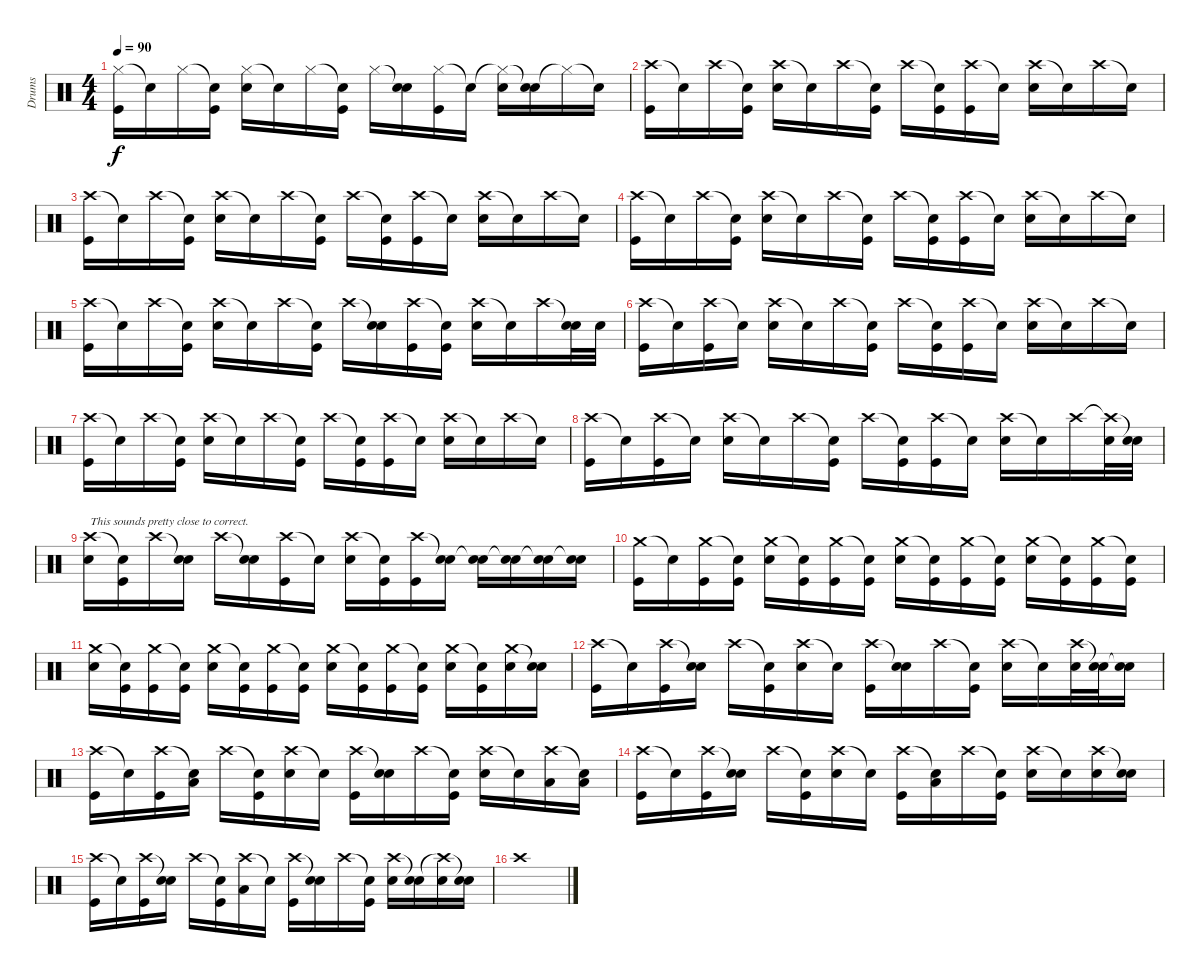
\track ("Drums" "Drums") {instrument percussion}
\staff {score}
\articulation defaults
\ts (4 4)
\tempo 90
\clef neutral
\ks c
("Hi-Hat (closed)" "Kick (hit)").16{dy f} "Snare (hit)"{t}.16 "Hi-Hat (closed)".16 ("Snare (hit)"{t} "Kick (hit)").16 ("Hi-Hat (closed)" "Electric Snare (hit)").16 "Snare (hit)"{t}.16 "Hi-Hat (closed)".16 ("Snare (hit)"{t} "Kick (hit)").16 "Hi-Hat (closed)".16 ("Snare (hit)"{t} "Electric Snare (hit)").16 ("Hi-Hat (closed)" "Kick (hit)").16 "Snare (hit)"{t}.16 ("Hi-Hat (closed)"{t} "Electric Snare (hit)").16 ("Snare (hit)"{t} "Electric Snare (hit)").16 "Hi-Hat (closed)"{t}.16 "Snare (hit)"{t}.16 |
("Crash high (hit)" "Kick (hit)").16 "Snare (hit)"{t}.16 "Crash high (hit)".16 ("Snare (hit)"{t} "Kick (hit)").16 ("Crash high (hit)" "Electric Snare (hit)").16 "Snare (hit)"{t}.16 "Crash high (hit)".16 ("Snare (hit)"{t} "Kick (hit)").16 "Crash high (hit)".16 ("Snare (hit)"{t} "Kick (hit)").16 ("Crash high (hit)" "Kick (hit)").16 "Snare (hit)"{t}.16 ("Crash high (hit)" "Electric Snare (hit)").16 "Snare (hit)"{t}.16 "Crash high (hit)".16 "Snare (hit)"{t}.16 |
("Crash high (hit)" "Kick (hit)").16 "Snare (hit)"{t}.16 "Crash high (hit)".16 ("Snare (hit)"{t} "Kick (hit)").16 ("Crash high (hit)" "Electric Snare (hit)").16 "Snare (hit)"{t}.16 "Crash high (hit)".16 ("Snare (hit)"{t} "Kick (hit)").16 "Crash high (hit)".16 ("Snare (hit)"{t} "Kick (hit)").16 ("Crash high (hit)" "Kick (hit)").16 "Snare (hit)"{t}.16 ("Crash high (hit)" "Electric Snare (hit)").16 "Snare (hit)"{t}.16 "Crash high (hit)".16 "Snare (hit)"{t}.16 |
("Crash high (hit)" "Kick (hit)").16 "Snare (hit)"{t}.16 "Crash high (hit)".16 ("Snare (hit)"{t} "Kick (hit)").16 ("Crash high (hit)" "Electric Snare (hit)").16 "Snare (hit)"{t}.16 "Crash high (hit)".16 ("Snare (hit)"{t} "Kick (hit)").16 "Crash high (hit)".16 ("Snare (hit)"{t} "Kick (hit)").16 ("Crash high (hit)" "Kick (hit)").16 "Snare (hit)"{t}.16 ("Crash high (hit)" "Electric Snare (hit)").16 "Snare (hit)"{t}.16 "Crash high (hit)".16 "Snare (hit)"{t}.16 |
("Crash high (hit)" "Kick (hit)").16 "Snare (hit)"{t}.16 "Crash high (hit)".16 ("Snare (hit)"{t} "Kick (hit)").16 ("Crash high (hit)" "Electric Snare (hit)").16 "Snare (hit)"{t}.16 "Crash high (hit)".16 ("Snare (hit)"{t} "Kick (hit)").16 "Crash high (hit)".16 ("Snare (hit)"{t} "Electric Snare (hit)").16 ("Crash high (hit)" "Kick (hit)").16 ("Snare (hit)"{t} "Kick (hit)").16 ("Crash high (hit)" "Electric Snare (hit)").16 "Snare (hit)"{t}.16 "Crash high (hit)".16 ("Snare (hit)"{t} "Electric Snare (hit)").32 "Electric Snare (hit)".32 |
("Crash high (hit)" "Kick (hit)").16 "Snare (hit)"{t}.16 ("Crash high (hit)" "Kick (hit)").16 "Snare (hit)"{t}.16 ("Crash high (hit)" "Electric Snare (hit)").16 "Snare (hit)"{t}.16 "Crash high (hit)".16 ("Snare (hit)"{t} "Kick (hit)").16 "Crash high (hit)".16 ("Snare (hit)"{t} "Kick (hit)").16 ("Crash high (hit)" "Kick (hit)").16 "Snare (hit)"{t}.16 ("Crash high (hit)" "Electric Snare (hit)").16 "Snare (hit)"{t}.16 "Crash high (hit)".16 "Snare (hit)"{t}.16 |
("Crash high (hit)" "Kick (hit)").16 "Snare (hit)"{t}.16 "Crash high (hit)".16 ("Snare (hit)"{t} "Kick (hit)").16 ("Crash high (hit)" "Electric Snare (hit)").16 "Snare (hit)"{t}.16 "Crash high (hit)".16 ("Snare (hit)"{t} "Kick (hit)").16 "Crash high (hit)".16 ("Snare (hit)"{t} "Kick (hit)").16 ("Crash high (hit)" "Kick (hit)").16 "Snare (hit)"{t}.16 ("Crash high (hit)" "Electric Snare (hit)").16 "Snare (hit)"{t}.16 "Crash high (hit)".16 "Snare (hit)"{t}.16 |
("Crash high (hit)" "Kick (hit)").16 "Snare (hit)"{t}.16 ("Crash high (hit)" "Kick (hit)").16 "Snare (hit)"{t}.16 ("Crash high (hit)" "Electric Snare (hit)").16 "Snare (hit)"{t}.16 "Crash high (hit)".16 ("Snare (hit)"{t} "Kick (hit)").16 "Crash high (hit)".16 ("Snare (hit)"{t} "Kick (hit)").16 ("Crash high (hit)" "Kick (hit)").16 "Snare (hit)"{t}.16 ("Crash high (hit)" "Electric Snare (hit)").16 "Snare (hit)"{t}.16 "Crash high (hit)".16 ("Crash high (hit)"{t} "Electric Snare (hit)").32 ("Snare (hit)"{t} "Electric Snare (hit)").32 |
("Crash high (hit)" "Electric Snare (hit)").16{txt "This sounds pretty close to correct."} ("Snare (hit)"{t} "Kick (hit)").16 "Crash high (hit)".16 ("Snare (hit)"{t} "Electric Snare (hit)").16 "Crash high (hit)".16 ("Snare (hit)"{t} "Electric Snare (hit)").16 ("Crash high (hit)" "Kick (hit)").16 "Snare (hit)"{t}.16 ("Crash high (hit)" "Electric Snare (hit)").16 ("Snare (hit)"{t} "Kick (hit)").16 ("Crash high (hit)" "Kick (hit)").16 ("Snare (hit)"{t} "Electric Snare (hit)").16 ("Snare (hit)"{t} "Electric Snare (hit)").16 ("Snare (hit)"{t} "Electric Snare (hit)").16 ("Snare (hit)"{t} "Electric Snare (hit)").16 ("Snare (hit)"{t} "Electric Snare (hit)").16 |
("Crash medium (hit)" "Kick (hit)").16 "Snare (hit)"{t}.16 ("Crash medium (hit)" "Kick (hit)").16 ("Snare (hit)"{t} "Kick (hit)").16 ("Crash medium (hit)" "Electric Snare (hit)").16 ("Snare (hit)"{t} "Kick (hit)").16 ("Crash medium (hit)" "Kick (hit)").16 ("Snare (hit)"{t} "Kick (hit)").16 ("Crash medium (hit)" "Electric Snare (hit)").16 ("Snare (hit)"{t} "Kick (hit)").16 ("Crash medium (hit)" "Kick (hit)").16 ("Snare (hit)"{t} "Kick (hit)").16 ("Crash medium (hit)" "Electric Snare (hit)").16 ("Snare (hit)"{t} "Kick (hit)").16 ("Crash medium (hit)" "Kick (hit)").16 ("Snare (hit)"{t} "Kick (hit)").16 |
("Crash medium (hit)" "Electric Snare (hit)").16 ("Snare (hit)"{t} "Kick (hit)").16 ("Crash medium (hit)" "Kick (hit)").16 ("Snare (hit)"{t} "Kick (hit)").16 ("Crash medium (hit)" "Electric Snare (hit)").16 ("Snare (hit)"{t} "Kick (hit)").16 ("Crash medium (hit)" "Kick (hit)").16 ("Snare (hit)"{t} "Kick (hit)").16 ("Crash medium (hit)" "Electric Snare (hit)").16 ("Snare (hit)"{t} "Kick (hit)").16 ("Crash medium (hit)" "Kick (hit)").16 ("Snare (hit)"{t} "Kick (hit)").16 ("Crash medium (hit)" "Electric Snare (hit)").16 ("Snare (hit)"{t} "Kick (hit)").16 ("Crash medium (hit)" "Electric Snare (hit)").16 ("Snare (hit)"{t} "Electric Snare (hit)").16 |
("Crash high (hit)" "Kick (hit)").16 "Snare (hit)"{t}.16 ("Crash high (hit)" "Kick (hit)").16 ("Snare (hit)"{t} "Electric Snare (hit)").16 "Crash high (hit)".16 ("Snare (hit)"{t} "Kick (hit)").16 ("Crash high (hit)" "Electric Snare (hit)").16 "Snare (hit)"{t}.16 ("Crash high (hit)" "Kick (hit)").16 ("Snare (hit)"{t} "Electric Snare (hit)").16 "Crash high (hit)".16 ("Snare (hit)"{t} "Kick (hit)").16 ("Crash high (hit)" "Electric Snare (hit)").16 "Snare (hit)"{t}.16 ("Crash high (hit)" "Electric Snare (hit)").32 ("Snare (hit)"{t} "Electric Snare (hit)").32 ("Snare (hit)"{t} "Electric Snare (hit)").16 |
("Crash high (hit)" "Kick (hit)").16 "Snare (hit)"{t}.16 ("Crash high (hit)" "Kick (hit)").16 ("Snare (hit)"{t} "Low Tom (hit)").16 "Crash high (hit)".16 ("Snare (hit)"{t} "Kick (hit)").16 ("Crash high (hit)" "Electric Snare (hit)").16 "Snare (hit)"{t}.16 ("Crash high (hit)" "Kick (hit)").16 ("Snare (hit)"{t} "Electric Snare (hit)").16 "Crash high (hit)".16 ("Snare (hit)"{t} "Kick (hit)").16 ("Crash high (hit)" "Electric Snare (hit)").16 "Snare (hit)"{t}.16 ("Crash high (hit)" "Low Tom (hit)").16 ("Snare (hit)"{t} "Low Tom (hit)").16 |
("Crash high (hit)" "Kick (hit)").16 "Snare (hit)"{t}.16 ("Crash high (hit)" "Kick (hit)").16 ("Snare (hit)"{t} "Electric Snare (hit)").16 "Crash high (hit)".16 ("Snare (hit)"{t} "Kick (hit)").16 ("Crash high (hit)" "Electric Snare (hit)").16 "Snare (hit)"{t}.16 ("Crash high (hit)" "Kick (hit)").16 ("Snare (hit)"{t} "Low Tom (hit)").16 "Crash high (hit)".16 ("Snare (hit)"{t} "Kick (hit)").16 ("Crash high (hit)" "Electric Snare (hit)").16 "Snare (hit)"{t}.16 ("Crash high (hit)" "Electric Snare (hit)").16 ("Snare (hit)"{t} "Electric Snare (hit)").16 |
("Crash high (hit)" "Kick (hit)").16 "Snare (hit)"{t}.16 ("Crash high (hit)" "Kick (hit)").16 ("Snare (hit)"{t} "Electric Snare (hit)").16 "Crash high (hit)".16 ("Snare (hit)"{t} "Kick (hit)").16 ("Crash high (hit)" "Low Tom (hit)").16 "Snare (hit)"{t}.16 ("Crash high (hit)" "Kick (hit)").16 ("Snare (hit)"{t} "Electric Snare (hit)").16 "Crash high (hit)".16 ("Snare (hit)"{t} "Kick (hit)").16 ("Crash high (hit)" "Electric Snare (hit)").16 ("Snare (hit)"{t} "Electric Snare (hit)").16 ("Crash high (hit)"{t} "Electric Snare (hit)").16 ("Snare (hit)"{t} "Electric Snare (hit)").16 |
"Crash high (hit)".1
